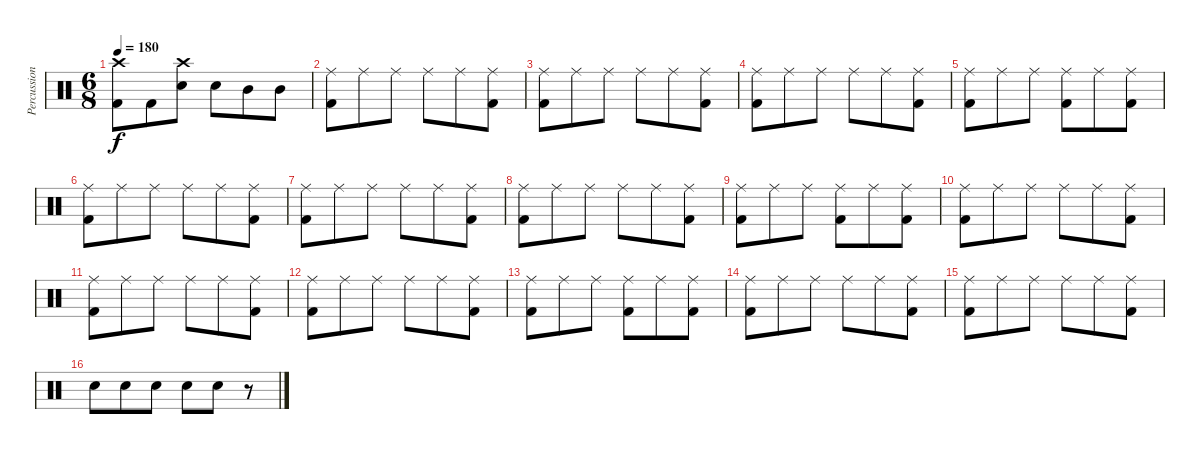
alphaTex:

\track ("Percussion" "Percussion") {instrument percussion}
\staff {score}
\articulation defaults
\ts (6 8)
\tempo 180
\clef neutral
\ks c
("Crash high (hit)" "Kick (hit) 2").8{dy f} "Kick (hit) 2".8 ("Crash high (hit)" "Electric Snare (hit)").8 "Electric Snare (hit)".8 "Mid Tom (hit)".8 "Mid Tom (hit)".8 |
("Kick (hit) 2" "Ride (middle)").8 "Ride (middle)".8 "Ride (middle)".8 "Ride (middle)".8 "Ride (middle)".8 ("Kick (hit) 2" "Ride (middle)").8 |
("Kick (hit) 2" "Ride (middle)").8 "Ride (middle)".8 "Ride (middle)".8 "Ride (middle)".8 "Ride (middle)".8 ("Kick (hit) 2" "Ride (middle)").8 |
("Kick (hit) 2" "Ride (middle)").8 "Ride (middle)".8 "Ride (middle)".8 "Ride (middle)".8 "Ride (middle)".8 ("Kick (hit) 2" "Ride (middle)").8 |
("Kick (hit) 2" "Ride (middle)").8 "Ride (middle)".8 "Ride (middle)".8 ("Kick (hit) 2" "Ride (middle)").8 "Ride (middle)".8 ("Kick (hit) 2" "Ride (middle)").8 |
("Kick (hit) 2" "Ride (middle)").8 "Ride (middle)".8 "Ride (middle)".8 "Ride (middle)".8 "Ride (middle)".8 ("Kick (hit) 2" "Ride (middle)").8 |
("Kick (hit) 2" "Ride (middle)").8 "Ride (middle)".8 "Ride (middle)".8 "Ride (middle)".8 "Ride (middle)".8 ("Kick (hit) 2" "Ride (middle)").8 |
("Kick (hit) 2" "Ride (middle)").8 "Ride (middle)".8 "Ride (middle)".8 "Ride (middle)".8 "Ride (middle)".8 ("Kick (hit) 2" "Ride (middle)").8 |
("Kick (hit) 2" "Ride (middle)").8 "Ride (middle)".8 "Ride (middle)".8 ("Kick (hit) 2" "Ride (middle)").8 "Ride (middle)".8 ("Kick (hit) 2" "Ride (middle)").8 |
("Kick (hit) 2" "Ride (middle)").8 "Ride (middle)".8 "Ride (middle)".8 "Ride (middle)".8 "Ride (middle)".8 ("Kick (hit) 2" "Ride (middle)").8 |
("Kick (hit) 2" "Ride (middle)").8 "Ride (middle)".8 "Ride (middle)".8 "Ride (middle)".8 "Ride (middle)".8 ("Kick (hit) 2" "Ride (middle)").8 |
("Kick (hit) 2" "Ride (middle)").8 "Ride (middle)".8 "Ride (middle)".8 "Ride (middle)".8 "Ride (middle)".8 ("Kick (hit) 2" "Ride (middle)").8 |
("Kick (hit) 2" "Ride (middle)").8 "Ride (middle)".8 "Ride (middle)".8 ("Kick (hit) 2" "Ride (middle)").8 "Ride (middle)".8 ("Kick (hit) 2" "Ride (middle)").8 |
("Kick (hit) 2" "Ride (middle)").8 "Ride (middle)".8 "Ride (middle)".8 "Ride (middle)".8 "Ride (middle)".8 ("Kick (hit) 2" "Ride (middle)").8 |
("Kick (hit) 2" "Ride (middle)").8 "Ride (middle)".8 "Ride (middle)".8 "Ride (middle)".8 "Ride (middle)".8 ("Kick (hit) 2" "Ride (middle)").8 |
"Electric Snare (hit)".8 "Electric Snare (hit)".8 "Electric Snare (hit)".8 "Electric Snare (hit)".8 "Electric Snare (hit)".8 r.8
